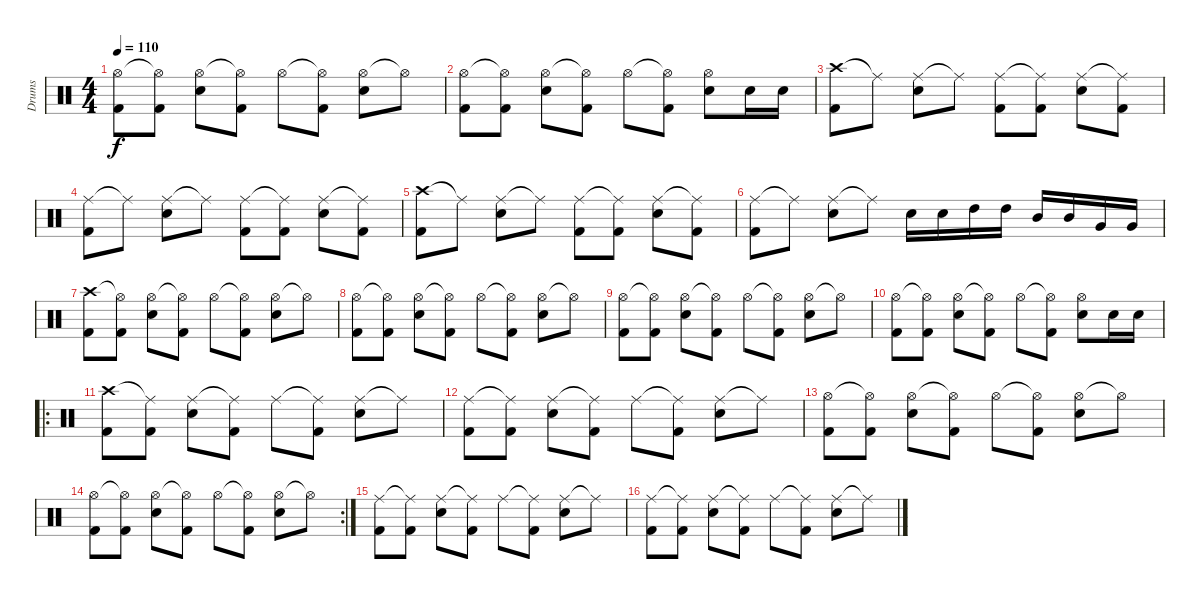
\track ("Drums" "Drums") {instrument percussion}
\staff {score}
\articulation defaults
\ts (4 4)
\tempo 110
\clef neutral
\ks c
("Hi-Hat (open)" "Kick (hit) 2").8{dy f} ("Hi-Hat (open)"{t} "Kick (hit) 2").8 ("Hi-Hat (open)" "Snare (hit) 2").8 ("Hi-Hat (open)"{t} "Kick (hit) 2").8 "Hi-Hat (open)".8 ("Hi-Hat (open)"{t} "Kick (hit) 2").8 ("Hi-Hat (open)" "Snare (hit) 2").8 "Hi-Hat (open)"{t}.8 |
("Hi-Hat (open)" "Kick (hit) 2").8 ("Hi-Hat (open)"{t} "Kick (hit) 2").8 ("Hi-Hat (open)" "Snare (hit) 2").8 ("Hi-Hat (open)"{t} "Kick (hit) 2").8 "Hi-Hat (open)".8 ("Hi-Hat (open)"{t} "Kick (hit) 2").8 ("Hi-Hat (open)" "Snare (hit) 2").8 "Snare (hit) 2".16 "Snare (hit) 2".16 |
("Crash high (hit)" "Kick (hit) 2").8 "Ride (middle)"{t}.8 ("Ride (middle)" "Snare (hit) 2").8 "Ride (middle)"{t}.8 ("Ride (middle)" "Kick (hit) 2").8 ("Ride (middle)"{t} "Kick (hit) 2").8 ("Ride (middle)" "Snare (hit) 2").8 ("Ride (middle)"{t} "Kick (hit) 2").8 |
("Ride (middle)" "Kick (hit) 2").8 "Ride (middle)"{t}.8 ("Ride (middle)" "Snare (hit) 2").8 "Ride (middle)"{t}.8 ("Ride (middle)" "Kick (hit) 2").8 ("Ride (middle)"{t} "Kick (hit) 2").8 ("Ride (middle)" "Snare (hit) 2").8 ("Ride (middle)"{t} "Kick (hit) 2").8 |
("Crash high (hit)" "Kick (hit) 2").8 "Ride (middle)"{t}.8 ("Ride (middle)" "Snare (hit) 2").8 "Ride (middle)"{t}.8 ("Ride (middle)" "Kick (hit) 2").8 ("Ride (middle)"{t} "Kick (hit) 2").8 ("Ride (middle)" "Snare (hit) 2").8 ("Ride (middle)"{t} "Kick (hit) 2").8 |
("Ride (middle)" "Kick (hit) 2").8 "Ride (middle)"{t}.8 ("Ride (middle)" "Snare (hit) 2").8 "Ride (middle)"{t}.8 "Snare (hit) 2".16 "Snare (hit) 2".16 "High Tom (hit)".16 "High Tom (hit)".16 "Mid Tom (hit)".16 "Mid Tom (hit)".16 "Very Low Tom (hit)".16 "Very Low Tom (hit)".16 |
("Crash high (hit)" "Kick (hit) 2").8 ("Hi-Hat (open)"{t} "Kick (hit) 2").8 ("Hi-Hat (open)" "Snare (hit) 2").8 ("Hi-Hat (open)"{t} "Kick (hit) 2").8 "Hi-Hat (open)".8 ("Hi-Hat (open)"{t} "Kick (hit) 2").8 ("Hi-Hat (open)" "Snare (hit) 2").8 "Hi-Hat (open)"{t}.8 |
("Hi-Hat (open)" "Kick (hit) 2").8 ("Hi-Hat (open)"{t} "Kick (hit) 2").8 ("Hi-Hat (open)" "Snare (hit) 2").8 ("Hi-Hat (open)"{t} "Kick (hit) 2").8 "Hi-Hat (open)".8 ("Hi-Hat (open)"{t} "Kick (hit) 2").8 ("Hi-Hat (open)" "Snare (hit) 2").8 "Hi-Hat (open)"{t}.8 |
("Hi-Hat (open)" "Kick (hit) 2").8 ("Hi-Hat (open)"{t} "Kick (hit) 2").8 ("Hi-Hat (open)" "Snare (hit) 2").8 ("Hi-Hat (open)"{t} "Kick (hit) 2").8 "Hi-Hat (open)".8 ("Hi-Hat (open)"{t} "Kick (hit) 2").8 ("Hi-Hat (open)" "Snare (hit) 2").8 "Hi-Hat (open)"{t}.8 |
("Hi-Hat (open)" "Kick (hit) 2").8 ("Hi-Hat (open)"{t} "Kick (hit) 2").8 ("Hi-Hat (open)" "Snare (hit) 2").8 ("Hi-Hat (open)"{t} "Kick (hit) 2").8 "Hi-Hat (open)".8 ("Hi-Hat (open)"{t} "Kick (hit) 2").8 ("Hi-Hat (open)" "Snare (hit) 2").8 "Snare (hit) 2".16 "Snare (hit) 2".16 |
\ro
("Crash high (hit)" "Kick (hit) 2").8 ("Ride (middle)"{t} "Kick (hit) 2").8 ("Ride (middle)" "Snare (hit) 2").8 ("Ride (middle)"{t} "Kick (hit) 2").8 "Ride (middle)".8 ("Ride (middle)"{t} "Kick (hit) 2").8 ("Ride (middle)" "Snare (hit) 2").8 "Ride (middle)"{t}.8 |
("Ride (middle)" "Kick (hit) 2").8 ("Ride (middle)"{t} "Kick (hit) 2").8 ("Ride (middle)" "Snare (hit) 2").8 ("Ride (middle)"{t} "Kick (hit) 2").8 "Ride (middle)".8 ("Ride (middle)"{t} "Kick (hit) 2").8 ("Ride (middle)" "Snare (hit) 2").8 "Ride (middle)"{t}.8 |
("Hi-Hat (open)" "Kick (hit) 2").8 ("Hi-Hat (open)"{t} "Kick (hit) 2").8 ("Hi-Hat (open)" "Snare (hit) 2").8 ("Hi-Hat (open)"{t} "Kick (hit) 2").8 "Hi-Hat (open)".8 ("Hi-Hat (open)"{t} "Kick (hit) 2").8 ("Hi-Hat (open)" "Snare (hit) 2").8 "Hi-Hat (open)"{t}.8 |
\rc 2
("Hi-Hat (open)" "Kick (hit) 2").8 ("Hi-Hat (open)"{t} "Kick (hit) 2").8 ("Hi-Hat (open)" "Snare (hit) 2").8 ("Hi-Hat (open)"{t} "Kick (hit) 2").8 "Hi-Hat (open)".8 ("Hi-Hat (open)"{t} "Kick (hit) 2").8 ("Hi-Hat (open)" "Snare (hit) 2").8 "Hi-Hat (open)"{t}.8 |
("Ride (middle)" "Kick (hit) 2").8 ("Ride (middle)"{t} "Kick (hit) 2").8 ("Ride (middle)" "Snare (hit) 2").8 ("Ride (middle)"{t} "Kick (hit) 2").8 "Ride (middle)".8 ("Ride (middle)"{t} "Kick (hit) 2").8 ("Ride (middle)" "Snare (hit) 2").8 "Ride (middle)"{t}.8 |
("Ride (middle)" "Kick (hit) 2").8 ("Ride (middle)"{t} "Kick (hit) 2").8 ("Ride (middle)" "Snare (hit) 2").8 ("Ride (middle)"{t} "Kick (hit) 2").8 "Ride (middle)".8 ("Ride (middle)"{t} "Kick (hit) 2").8 ("Ride (middle)" "Snare (hit) 2").8 "Ride (middle)"{t}.8
